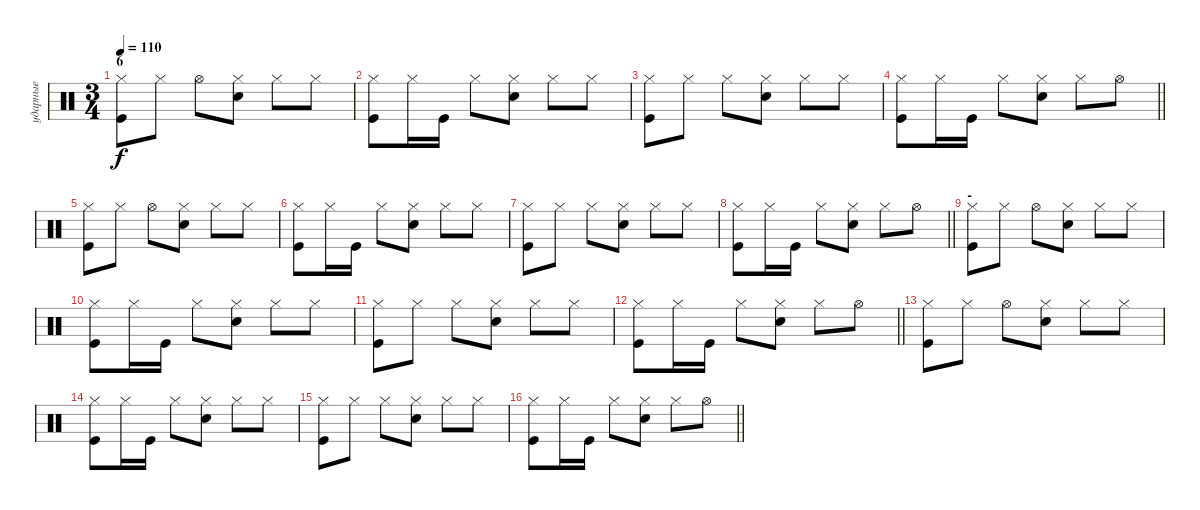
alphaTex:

\track ("ударные" "ударные") {instrument percussion}
\staff {score}
\articulation defaults
\ts (3 4)
\section ("" "6")
\tempo 110
\clef neutral
\ks c
("Hi-Hat (closed)" "Kick (hit)").8{dy f} "Hi-Hat (closed)".8 "Hi-Hat (open)".8 ("Hi-Hat (closed)" "Electric Snare (hit)").8 "Hi-Hat (closed)".8 "Hi-Hat (closed)".8 |
("Hi-Hat (closed)" "Kick (hit)").8 "Hi-Hat (closed)".16 "Kick (hit)".16 "Hi-Hat (closed)".8 ("Hi-Hat (closed)" "Electric Snare (hit)").8 "Hi-Hat (closed)".8 "Hi-Hat (closed)".8 |
("Hi-Hat (closed)" "Kick (hit)").8 "Hi-Hat (closed)".8 "Hi-Hat (closed)".8 ("Hi-Hat (closed)" "Electric Snare (hit)").8 "Hi-Hat (closed)".8 "Hi-Hat (closed)".8 |
\barLineRight lightlight
("Hi-Hat (closed)" "Kick (hit)").8 "Hi-Hat (closed)".16 "Kick (hit)".16 "Hi-Hat (closed)".8 ("Hi-Hat (closed)" "Electric Snare (hit)").8 "Hi-Hat (closed)".8 "Hi-Hat (open)".8 |
("Hi-Hat (closed)" "Kick (hit)").8 "Hi-Hat (closed)".8 "Hi-Hat (open)".8 ("Hi-Hat (closed)" "Electric Snare (hit)").8 "Hi-Hat (closed)".8 "Hi-Hat (closed)".8 |
("Hi-Hat (closed)" "Kick (hit)").8 "Hi-Hat (closed)".16 "Kick (hit)".16 "Hi-Hat (closed)".8 ("Hi-Hat (closed)" "Electric Snare (hit)").8 "Hi-Hat (closed)".8 "Hi-Hat (closed)".8 |
("Hi-Hat (closed)" "Kick (hit)").8 "Hi-Hat (closed)".8 "Hi-Hat (closed)".8 ("Hi-Hat (closed)" "Electric Snare (hit)").8 "Hi-Hat (closed)".8 "Hi-Hat (closed)".8 |
\barLineRight lightlight
("Hi-Hat (closed)" "Kick (hit)").8 "Hi-Hat (closed)".16 "Kick (hit)".16 "Hi-Hat (closed)".8 ("Hi-Hat (closed)" "Electric Snare (hit)").8 "Hi-Hat (closed)".8 "Hi-Hat (open)".8 |
\section ("" "-")
("Hi-Hat (closed)" "Kick (hit)").8 "Hi-Hat (closed)".8 "Hi-Hat (open)".8 ("Hi-Hat (closed)" "Electric Snare (hit)").8 "Hi-Hat (closed)".8 "Hi-Hat (closed)".8 |
("Hi-Hat (closed)" "Kick (hit)").8 "Hi-Hat (closed)".16 "Kick (hit)".16 "Hi-Hat (closed)".8 ("Hi-Hat (closed)" "Electric Snare (hit)").8 "Hi-Hat (closed)".8 "Hi-Hat (closed)".8 |
("Hi-Hat (closed)" "Kick (hit)").8 "Hi-Hat (closed)".8 "Hi-Hat (closed)".8 ("Hi-Hat (closed)" "Electric Snare (hit)").8 "Hi-Hat (closed)".8 "Hi-Hat (closed)".8 |
\barLineRight lightlight
("Hi-Hat (closed)" "Kick (hit)").8 "Hi-Hat (closed)".16 "Kick (hit)".16 "Hi-Hat (closed)".8 ("Hi-Hat (closed)" "Electric Snare (hit)").8 "Hi-Hat (closed)".8 "Hi-Hat (open)".8 |
("Hi-Hat (closed)" "Kick (hit)").8 "Hi-Hat (closed)".8 "Hi-Hat (open)".8 ("Hi-Hat (closed)" "Electric Snare (hit)").8 "Hi-Hat (closed)".8 "Hi-Hat (closed)".8 |
("Hi-Hat (closed)" "Kick (hit)").8 "Hi-Hat (closed)".16 "Kick (hit)".16 "Hi-Hat (closed)".8 ("Hi-Hat (closed)" "Electric Snare (hit)").8 "Hi-Hat (closed)".8 "Hi-Hat (closed)".8 |
("Hi-Hat (closed)" "Kick (hit)").8 "Hi-Hat (closed)".8 "Hi-Hat (closed)".8 ("Hi-Hat (closed)" "Electric Snare (hit)").8 "Hi-Hat (closed)".8 "Hi-Hat (closed)".8 |
\barLineRight lightlight
("Hi-Hat (closed)" "Kick (hit)").8 "Hi-Hat (closed)".16 "Kick (hit)".16 "Hi-Hat (closed)".8 ("Hi-Hat (closed)" "Electric Snare (hit)").8 "Hi-Hat (closed)".8 "Hi-Hat (open)".8
